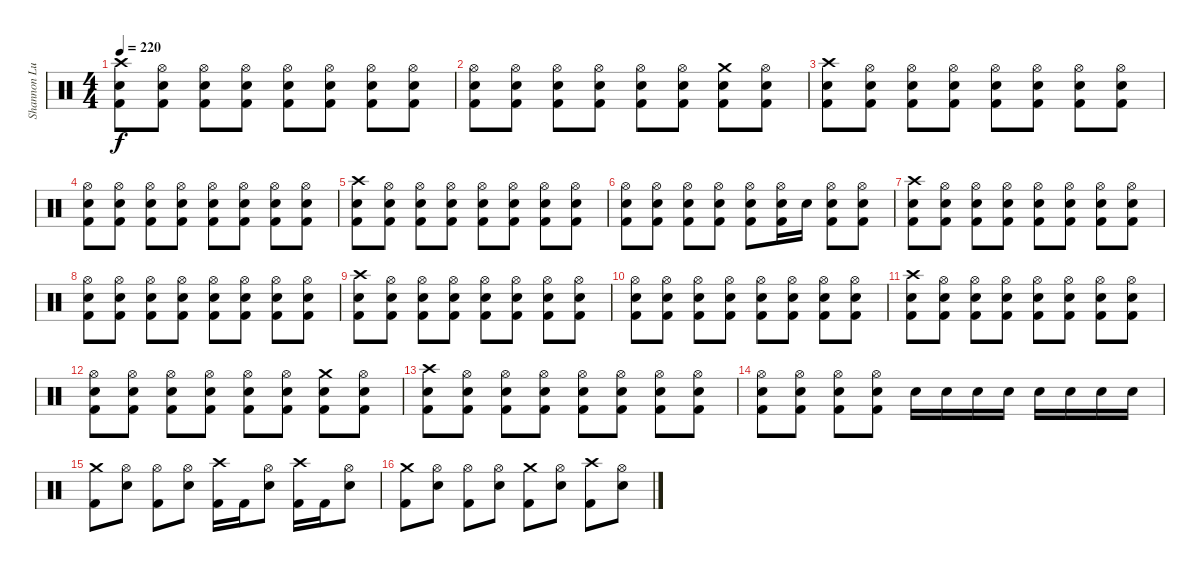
\track ("Shannon Lucas (Drums)" "Shannon Lu") {instrument percussion}
\staff {score}
\articulation defaults
\ts (4 4)
\tempo 220
\clef neutral
\ks c
("Crash high (hit)" "Kick (hit) 2" "Snare (hit) 2").8{dy f} ("Hi-Hat (open)" "Kick (hit) 2" "Snare (hit) 2").8 ("Hi-Hat (open)" "Kick (hit) 2" "Snare (hit) 2").8 ("Hi-Hat (open)" "Kick (hit) 2" "Snare (hit) 2").8 ("Hi-Hat (open)" "Kick (hit) 2" "Snare (hit) 2").8 ("Hi-Hat (open)" "Kick (hit) 2" "Snare (hit) 2").8 ("Hi-Hat (open)" "Kick (hit) 2" "Snare (hit) 2").8 ("Hi-Hat (open)" "Kick (hit) 2" "Snare (hit) 2").8 |
("Hi-Hat (open)" "Kick (hit) 2" "Snare (hit) 2").8 ("Hi-Hat (open)" "Kick (hit) 2" "Snare (hit) 2").8 ("Hi-Hat (open)" "Kick (hit) 2" "Snare (hit) 2").8 ("Hi-Hat (open)" "Kick (hit) 2" "Snare (hit) 2").8 ("Hi-Hat (open)" "Kick (hit) 2" "Snare (hit) 2").8 ("Hi-Hat (open)" "Kick (hit) 2" "Snare (hit) 2").8 ("Crash medium (hit)" "Kick (hit) 2" "Snare (hit) 2").8 ("Hi-Hat (open)" "Kick (hit) 2" "Snare (hit) 2").8 |
("Crash high (hit)" "Kick (hit) 2" "Snare (hit) 2").8 ("Hi-Hat (open)" "Kick (hit) 2" "Snare (hit) 2").8 ("Hi-Hat (open)" "Kick (hit) 2" "Snare (hit) 2").8 ("Hi-Hat (open)" "Kick (hit) 2" "Snare (hit) 2").8 ("Hi-Hat (open)" "Kick (hit) 2" "Snare (hit) 2").8 ("Hi-Hat (open)" "Kick (hit) 2" "Snare (hit) 2").8 ("Hi-Hat (open)" "Kick (hit) 2" "Snare (hit) 2").8 ("Hi-Hat (open)" "Kick (hit) 2" "Snare (hit) 2").8 |
("Hi-Hat (open)" "Kick (hit) 2" "Snare (hit) 2").8 ("Hi-Hat (open)" "Kick (hit) 2" "Snare (hit) 2").8 ("Hi-Hat (open)" "Kick (hit) 2" "Snare (hit) 2").8 ("Hi-Hat (open)" "Kick (hit) 2" "Snare (hit) 2").8 ("Hi-Hat (open)" "Kick (hit) 2" "Snare (hit) 2").8 ("Hi-Hat (open)" "Kick (hit) 2" "Snare (hit) 2").8 ("Hi-Hat (open)" "Kick (hit) 2" "Snare (hit) 2").8 ("Hi-Hat (open)" "Kick (hit) 2" "Snare (hit) 2").8 |
("Crash high (hit)" "Kick (hit) 2" "Snare (hit) 2").8 ("Hi-Hat (open)" "Kick (hit) 2" "Snare (hit) 2").8 ("Hi-Hat (open)" "Kick (hit) 2" "Snare (hit) 2").8 ("Hi-Hat (open)" "Kick (hit) 2" "Snare (hit) 2").8 ("Hi-Hat (open)" "Kick (hit) 2" "Snare (hit) 2").8 ("Hi-Hat (open)" "Kick (hit) 2" "Snare (hit) 2").8 ("Hi-Hat (open)" "Kick (hit) 2" "Snare (hit) 2").8 ("Hi-Hat (open)" "Kick (hit) 2" "Snare (hit) 2").8 |
("Hi-Hat (open)" "Kick (hit) 2" "Snare (hit) 2").8 ("Hi-Hat (open)" "Kick (hit) 2" "Snare (hit) 2").8 ("Hi-Hat (open)" "Kick (hit) 2" "Snare (hit) 2").8 ("Hi-Hat (open)" "Kick (hit) 2" "Snare (hit) 2").8 ("Hi-Hat (open)" "Kick (hit) 2" "Snare (hit) 2").8 ("Hi-Hat (open)" "Kick (hit) 2" "Snare (hit) 2").16 "Snare (hit) 2".16 ("Hi-Hat (open)" "Snare (hit) 2" "Kick (hit) 2").8 ("Hi-Hat (open)" "Snare (hit) 2" "Kick (hit) 2").8 |
("Crash high (hit)" "Kick (hit) 2" "Snare (hit) 2").8 ("Hi-Hat (open)" "Kick (hit) 2" "Snare (hit) 2").8 ("Hi-Hat (open)" "Kick (hit) 2" "Snare (hit) 2").8 ("Hi-Hat (open)" "Kick (hit) 2" "Snare (hit) 2").8 ("Hi-Hat (open)" "Kick (hit) 2" "Snare (hit) 2").8 ("Hi-Hat (open)" "Kick (hit) 2" "Snare (hit) 2").8 ("Hi-Hat (open)" "Kick (hit) 2" "Snare (hit) 2").8 ("Hi-Hat (open)" "Kick (hit) 2" "Snare (hit) 2").8 |
("Hi-Hat (open)" "Kick (hit) 2" "Snare (hit) 2").8 ("Hi-Hat (open)" "Kick (hit) 2" "Snare (hit) 2").8 ("Hi-Hat (open)" "Kick (hit) 2" "Snare (hit) 2").8 ("Hi-Hat (open)" "Kick (hit) 2" "Snare (hit) 2").8 ("Hi-Hat (open)" "Kick (hit) 2" "Snare (hit) 2").8 ("Hi-Hat (open)" "Kick (hit) 2" "Snare (hit) 2").8 ("Hi-Hat (open)" "Kick (hit) 2" "Snare (hit) 2").8 ("Hi-Hat (open)" "Kick (hit) 2" "Snare (hit) 2").8 |
("Crash high (hit)" "Kick (hit) 2" "Snare (hit) 2").8 ("Hi-Hat (open)" "Kick (hit) 2" "Snare (hit) 2").8 ("Hi-Hat (open)" "Kick (hit) 2" "Snare (hit) 2").8 ("Hi-Hat (open)" "Kick (hit) 2" "Snare (hit) 2").8 ("Hi-Hat (open)" "Kick (hit) 2" "Snare (hit) 2").8 ("Hi-Hat (open)" "Kick (hit) 2" "Snare (hit) 2").8 ("Hi-Hat (open)" "Kick (hit) 2" "Snare (hit) 2").8 ("Hi-Hat (open)" "Kick (hit) 2" "Snare (hit) 2").8 |
("Hi-Hat (open)" "Kick (hit) 2" "Snare (hit) 2").8 ("Hi-Hat (open)" "Kick (hit) 2" "Snare (hit) 2").8 ("Hi-Hat (open)" "Kick (hit) 2" "Snare (hit) 2").8 ("Hi-Hat (open)" "Kick (hit) 2" "Snare (hit) 2").8 ("Hi-Hat (open)" "Kick (hit) 2" "Snare (hit) 2").8 ("Hi-Hat (open)" "Kick (hit) 2" "Snare (hit) 2").8 ("Hi-Hat (open)" "Kick (hit) 2" "Snare (hit) 2").8 ("Hi-Hat (open)" "Kick (hit) 2" "Snare (hit) 2").8 |
("Crash high (hit)" "Kick (hit) 2" "Snare (hit) 2").8 ("Hi-Hat (open)" "Kick (hit) 2" "Snare (hit) 2").8 ("Hi-Hat (open)" "Kick (hit) 2" "Snare (hit) 2").8 ("Hi-Hat (open)" "Kick (hit) 2" "Snare (hit) 2").8 ("Hi-Hat (open)" "Kick (hit) 2" "Snare (hit) 2").8 ("Hi-Hat (open)" "Kick (hit) 2" "Snare (hit) 2").8 ("Hi-Hat (open)" "Kick (hit) 2" "Snare (hit) 2").8 ("Hi-Hat (open)" "Kick (hit) 2" "Snare (hit) 2").8 |
("Hi-Hat (open)" "Kick (hit) 2" "Snare (hit) 2").8 ("Hi-Hat (open)" "Kick (hit) 2" "Snare (hit) 2").8 ("Hi-Hat (open)" "Kick (hit) 2" "Snare (hit) 2").8 ("Hi-Hat (open)" "Kick (hit) 2" "Snare (hit) 2").8 ("Hi-Hat (open)" "Kick (hit) 2" "Snare (hit) 2").8 ("Hi-Hat (open)" "Kick (hit) 2" "Snare (hit) 2").8 ("Crash medium (hit)" "Kick (hit) 2" "Snare (hit) 2").8 ("Hi-Hat (open)" "Kick (hit) 2" "Snare (hit) 2").8 |
("Crash high (hit)" "Kick (hit) 2" "Snare (hit) 2").8 ("Hi-Hat (open)" "Kick (hit) 2" "Snare (hit) 2").8 ("Hi-Hat (open)" "Kick (hit) 2" "Snare (hit) 2").8 ("Hi-Hat (open)" "Kick (hit) 2" "Snare (hit) 2").8 ("Hi-Hat (open)" "Kick (hit) 2" "Snare (hit) 2").8 ("Hi-Hat (open)" "Kick (hit) 2" "Snare (hit) 2").8 ("Hi-Hat (open)" "Kick (hit) 2" "Snare (hit) 2").8 ("Hi-Hat (open)" "Kick (hit) 2" "Snare (hit) 2").8 |
("Hi-Hat (open)" "Kick (hit) 2" "Snare (hit) 2").8 ("Hi-Hat (open)" "Kick (hit) 2" "Snare (hit) 2").8 ("Hi-Hat (open)" "Kick (hit) 2" "Snare (hit) 2").8 ("Hi-Hat (open)" "Kick (hit) 2" "Snare (hit) 2").8 "Snare (hit) 2".16 "Snare (hit) 2".16 "Snare (hit) 2".16 "Snare (hit) 2".16 "Snare (hit) 2".16 "Snare (hit) 2".16 "Snare (hit) 2".16 "Snare (hit) 2".16 |
("Crash medium (hit)" "Kick (hit) 2").8 ("Hi-Hat (open)" "Snare (hit) 2").8 ("Hi-Hat (open)" "Kick (hit) 2").8 ("Hi-Hat (open)" "Snare (hit) 2").8 ("Crash high (hit)" "Kick (hit) 2").16 "Kick (hit) 2".16 ("Hi-Hat (open)" "Snare (hit) 2").8 ("Crash high (hit)" "Kick (hit) 2").16 "Kick (hit) 2".16 ("Hi-Hat (open)" "Snare (hit) 2").8 |
("Crash medium (hit)" "Kick (hit) 2").8 ("Hi-Hat (open)" "Snare (hit) 2").8 ("Hi-Hat (open)" "Kick (hit) 2").8 ("Hi-Hat (open)" "Snare (hit) 2").8 ("Crash medium (hit)" "Kick (hit) 2").8 ("Hi-Hat (open)" "Snare (hit) 2").8 ("Crash high (hit)" "Kick (hit) 2").8 ("Hi-Hat (open)" "Snare (hit) 2").8
